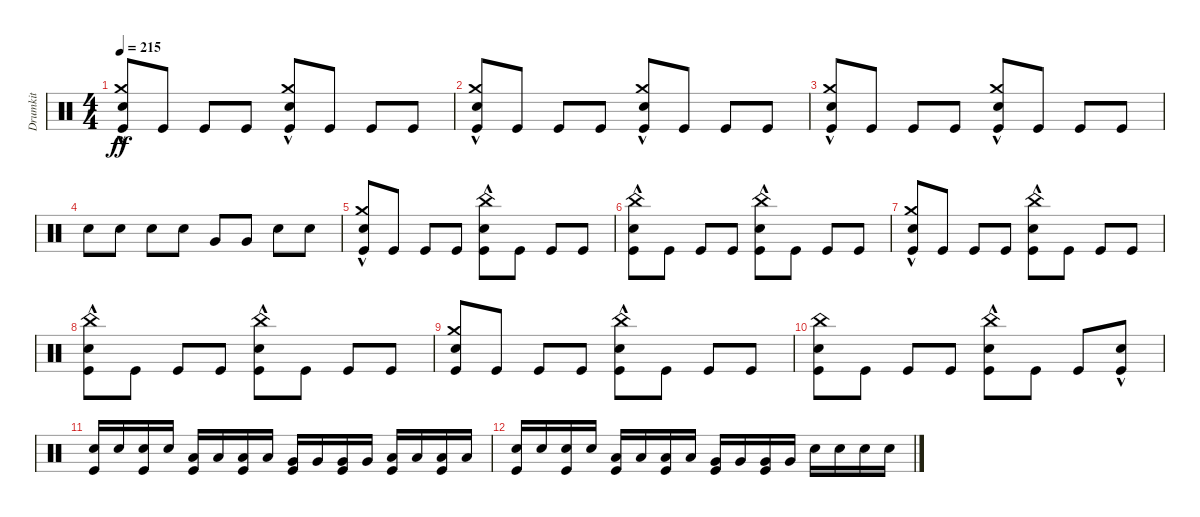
\track ("Drumkit" "Drumkit") {instrument percussion}
\staff {score}
\articulation defaults
\ts (4 4)
\tempo 215
\clef neutral
\ks c
("Kick (hit)" "Crash medium (hit)" "Snare (hit) 2"{hac}).8{dy ff} "Kick (hit)".8 "Kick (hit)".8 "Kick (hit)".8 ("Kick (hit)" "Crash medium (hit)" "Snare (hit) 2"{hac}).8 "Kick (hit)".8 "Kick (hit)".8 "Kick (hit)".8 |
("Kick (hit)" "Crash medium (hit)" "Snare (hit) 2"{hac}).8 "Kick (hit)".8 "Kick (hit)".8 "Kick (hit)".8 ("Kick (hit)" "Crash medium (hit)" "Snare (hit) 2"{hac}).8 "Kick (hit)".8 "Kick (hit)".8 "Kick (hit)".8 |
("Kick (hit)" "Crash medium (hit)" "Snare (hit) 2"{hac}).8 "Kick (hit)".8 "Kick (hit)".8 "Kick (hit)".8 ("Kick (hit)" "Crash medium (hit)" "Snare (hit) 2"{hac}).8 "Kick (hit)".8 "Kick (hit)".8 "Kick (hit)".8 |
"Snare (hit) 2".8 "Snare (hit) 2".8 "Snare (hit) 2".8 "Snare (hit) 2".8 "Very Low Tom (hit)".8 "Very Low Tom (hit)".8 "Snare (hit) 2".8 "Snare (hit) 2".8 |
("Kick (hit)" "Crash medium (hit)" "Snare (hit) 2"{hac}).8 "Kick (hit)".8 "Kick (hit)".8 "Kick (hit)".8 ("Kick (hit)" "Snare (hit) 2"{hac} "China (hit)").8 "Kick (hit)".8 "Kick (hit)".8 "Kick (hit)".8 |
("Kick (hit)" "Snare (hit) 2"{hac} "China (hit)").8 "Kick (hit)".8 "Kick (hit)".8 "Kick (hit)".8 ("Kick (hit)" "Snare (hit) 2"{hac} "China (hit)").8 "Kick (hit)".8 "Kick (hit)".8 "Kick (hit)".8 |
("Kick (hit)" "Snare (hit) 2"{hac} "Crash medium (hit)").8 "Kick (hit)".8 "Kick (hit)".8 "Kick (hit)".8 ("Kick (hit)" "Snare (hit) 2"{hac} "China (hit)").8 "Kick (hit)".8 "Kick (hit)".8 "Kick (hit)".8 |
("Kick (hit)" "Snare (hit) 2"{hac} "China (hit)").8 "Kick (hit)".8 "Kick (hit)".8 "Kick (hit)".8 ("Kick (hit)" "Snare (hit) 2"{hac} "China (hit)").8 "Kick (hit)".8 "Kick (hit)".8 "Kick (hit)".8 |
("Kick (hit)" "Crash medium (hit)" "Snare (hit) 2").8 "Kick (hit)".8 "Kick (hit)".8 "Kick (hit)".8 ("Kick (hit)" "Snare (hit) 2"{hac} "China (hit)").8 "Kick (hit)".8 "Kick (hit)".8 "Kick (hit)".8 |
("Kick (hit)" "Snare (hit) 2" "China (hit)").8 "Kick (hit)".8 "Kick (hit)".8 "Kick (hit)".8 ("Kick (hit)" "Snare (hit) 2"{hac} "China (hit)").8 "Kick (hit)".8 "Kick (hit)".8 ("Kick (hit)" "Snare (hit) 2"{hac}).8 |
("Snare (hit) 2" "Kick (hit)").16 "Snare (hit) 2".16 ("Snare (hit) 2" "Kick (hit)").16 "Snare (hit) 2".16 ("Low Tom (hit)" "Kick (hit)").16 "Low Tom (hit)".16 ("Low Tom (hit)" "Kick (hit)").16 "Low Tom (hit)".16 ("Very Low Tom (hit)" "Kick (hit)").16 "Very Low Tom (hit)".16 ("Very Low Tom (hit)" "Kick (hit)").16 "Very Low Tom (hit)".16 ("Low Floor Tom (hit)" "Kick (hit)").16 "Low Floor Tom (hit)".16 ("Low Floor Tom (hit)" "Kick (hit)").16 "Low Floor Tom (hit)".16 |
("Snare (hit) 2" "Kick (hit)").16 "Snare (hit) 2".16 ("Snare (hit) 2" "Kick (hit)").16 "Snare (hit) 2".16 ("Low Tom (hit)" "Kick (hit)").16 "Low Tom (hit)".16 ("Low Tom (hit)" "Kick (hit)").16 "Low Tom (hit)".16 ("Very Low Tom (hit)" "Kick (hit)").16 "Very Low Tom (hit)".16 ("Very Low Tom (hit)" "Kick (hit)").16 "Very Low Tom (hit)".16 "Snare (hit) 2".16 "Snare (hit) 2".16 "Snare (hit) 2".16 "Snare (hit) 2".16
